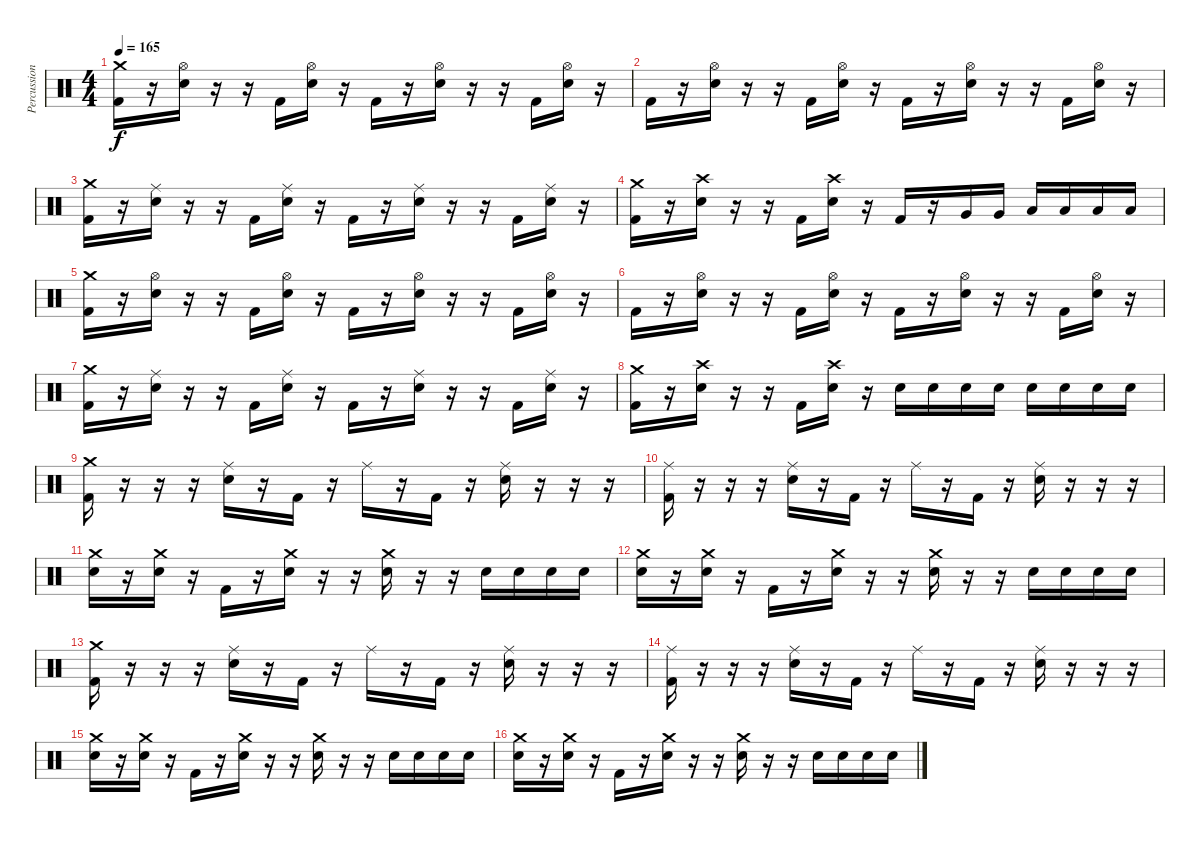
\track ("Percussion" "Percussion") {instrument percussion}
\staff {score}
\articulation defaults
\ts (4 4)
\tempo 165
\clef neutral
\ks c
("Crash medium (hit)" "Kick (hit) 2").16{dy f} r.16 ("Hi-Hat (open)" "Electric Snare (hit)").16 r.16 r.16 "Kick (hit) 2".16 ("Hi-Hat (open)" "Electric Snare (hit)").16 r.16 "Kick (hit) 2".16 r.16 ("Hi-Hat (open)" "Electric Snare (hit)").16 r.16 r.16 "Kick (hit) 2".16 ("Hi-Hat (open)" "Electric Snare (hit)").16 r.16 |
"Kick (hit) 2".16 r.16 ("Hi-Hat (open)" "Electric Snare (hit)").16 r.16 r.16 "Kick (hit) 2".16 ("Hi-Hat (open)" "Electric Snare (hit)").16 r.16 "Kick (hit) 2".16 r.16 ("Hi-Hat (open)" "Electric Snare (hit)").16 r.16 r.16 "Kick (hit) 2".16 ("Hi-Hat (open)" "Electric Snare (hit)").16 r.16 |
("Crash medium (hit)" "Kick (hit) 2").16 r.16 ("Ride (middle)" "Electric Snare (hit)").16 r.16 r.16 "Kick (hit) 2".16 ("Ride (middle)" "Electric Snare (hit)").16 r.16 "Kick (hit) 2".16 r.16 ("Ride (middle)" "Electric Snare (hit)").16 r.16 r.16 "Kick (hit) 2".16 ("Ride (middle)" "Electric Snare (hit)").16 r.16 |
("Crash medium (hit)" "Kick (hit) 2").16 r.16 ("Crash high (hit)" "Electric Snare (hit)").16 r.16 r.16 "Kick (hit) 2".16 ("Crash high (hit)" "Electric Snare (hit)").16 r.16 "Kick (hit) 2".16 r.16 "Very Low Tom (hit)".16 "Very Low Tom (hit)".16 "Low Floor Tom (hit)".16 "Low Floor Tom (hit)".16 "Low Floor Tom (hit)".16 "Low Floor Tom (hit)".16 |
("Crash medium (hit)" "Kick (hit) 2").16 r.16 ("Hi-Hat (open)" "Electric Snare (hit)").16 r.16 r.16 "Kick (hit) 2".16 ("Hi-Hat (open)" "Electric Snare (hit)").16 r.16 "Kick (hit) 2".16 r.16 ("Hi-Hat (open)" "Electric Snare (hit)").16 r.16 r.16 "Kick (hit) 2".16 ("Hi-Hat (open)" "Electric Snare (hit)").16 r.16 |
"Kick (hit) 2".16 r.16 ("Hi-Hat (open)" "Electric Snare (hit)").16 r.16 r.16 "Kick (hit) 2".16 ("Hi-Hat (open)" "Electric Snare (hit)").16 r.16 "Kick (hit) 2".16 r.16 ("Hi-Hat (open)" "Electric Snare (hit)").16 r.16 r.16 "Kick (hit) 2".16 ("Hi-Hat (open)" "Electric Snare (hit)").16 r.16 |
("Crash medium (hit)" "Kick (hit) 2").16 r.16 ("Ride (middle)" "Electric Snare (hit)").16 r.16 r.16 "Kick (hit) 2".16 ("Ride (middle)" "Electric Snare (hit)").16 r.16 "Kick (hit) 2".16 r.16 ("Ride (middle)" "Electric Snare (hit)").16 r.16 r.16 "Kick (hit) 2".16 ("Ride (middle)" "Electric Snare (hit)").16 r.16 |
("Crash medium (hit)" "Kick (hit) 2").16 r.16 ("Crash high (hit)" "Electric Snare (hit)").16 r.16 r.16 "Kick (hit) 2".16 ("Crash high (hit)" "Electric Snare (hit)").16 r.16 "Electric Snare (hit)".16 "Electric Snare (hit)".16 "Electric Snare (hit)".16 "Electric Snare (hit)".16 "Electric Snare (hit)".16 "Electric Snare (hit)".16 "Electric Snare (hit)".16 "Electric Snare (hit)".16 |
("Crash medium (hit)" "Kick (hit) 2").16 r.16 r.16 r.16 ("Ride (middle)" "Electric Snare (hit)").16 r.16 "Kick (hit) 2".16 r.16 "Ride (middle)".16 r.16 "Kick (hit) 2".16 r.16 ("Ride (middle)" "Electric Snare (hit)").16 r.16 r.16 r.16 |
("Ride (middle)" "Kick (hit) 2").16 r.16 r.16 r.16 ("Ride (middle)" "Electric Snare (hit)").16 r.16 "Kick (hit) 2".16 r.16 "Ride (middle)".16 r.16 "Kick (hit) 2".16 r.16 ("Ride (middle)" "Electric Snare (hit)").16 r.16 r.16 r.16 |
("Crash medium (hit)" "Electric Snare (hit)").16 r.16 ("Crash medium (hit)" "Electric Snare (hit)").16 r.16 "Kick (hit) 2".16 r.16 ("Crash medium (hit)" "Electric Snare (hit)").16 r.16 r.16 ("Crash medium (hit)" "Electric Snare (hit)").16 r.16 r.16 "Electric Snare (hit)".16 "Electric Snare (hit)".16 "Electric Snare (hit)".16 "Electric Snare (hit)".16 |
("Crash medium (hit)" "Electric Snare (hit)").16 r.16 ("Crash medium (hit)" "Electric Snare (hit)").16 r.16 "Kick (hit) 2".16 r.16 ("Crash medium (hit)" "Electric Snare (hit)").16 r.16 r.16 ("Crash medium (hit)" "Electric Snare (hit)").16 r.16 r.16 "Electric Snare (hit)".16 "Electric Snare (hit)".16 "Electric Snare (hit)".16 "Electric Snare (hit)".16 |
("Crash medium (hit)" "Kick (hit) 2").16 r.16 r.16 r.16 ("Ride (middle)" "Electric Snare (hit)").16 r.16 "Kick (hit) 2".16 r.16 "Ride (middle)".16 r.16 "Kick (hit) 2".16 r.16 ("Ride (middle)" "Electric Snare (hit)").16 r.16 r.16 r.16 |
("Ride (middle)" "Kick (hit) 2").16 r.16 r.16 r.16 ("Ride (middle)" "Electric Snare (hit)").16 r.16 "Kick (hit) 2".16 r.16 "Ride (middle)".16 r.16 "Kick (hit) 2".16 r.16 ("Ride (middle)" "Electric Snare (hit)").16 r.16 r.16 r.16 |
("Crash medium (hit)" "Electric Snare (hit)").16 r.16 ("Crash medium (hit)" "Electric Snare (hit)").16 r.16 "Kick (hit) 2".16 r.16 ("Crash medium (hit)" "Electric Snare (hit)").16 r.16 r.16 ("Crash medium (hit)" "Electric Snare (hit)").16 r.16 r.16 "Electric Snare (hit)".16 "Electric Snare (hit)".16 "Electric Snare (hit)".16 "Electric Snare (hit)".16 |
("Crash medium (hit)" "Electric Snare (hit)").16 r.16 ("Crash medium (hit)" "Electric Snare (hit)").16 r.16 "Kick (hit) 2".16 r.16 ("Crash medium (hit)" "Electric Snare (hit)").16 r.16 r.16 ("Crash medium (hit)" "Electric Snare (hit)").16 r.16 r.16 "Electric Snare (hit)".16 "Electric Snare (hit)".16 "Electric Snare (hit)".16 "Electric Snare (hit)".16
